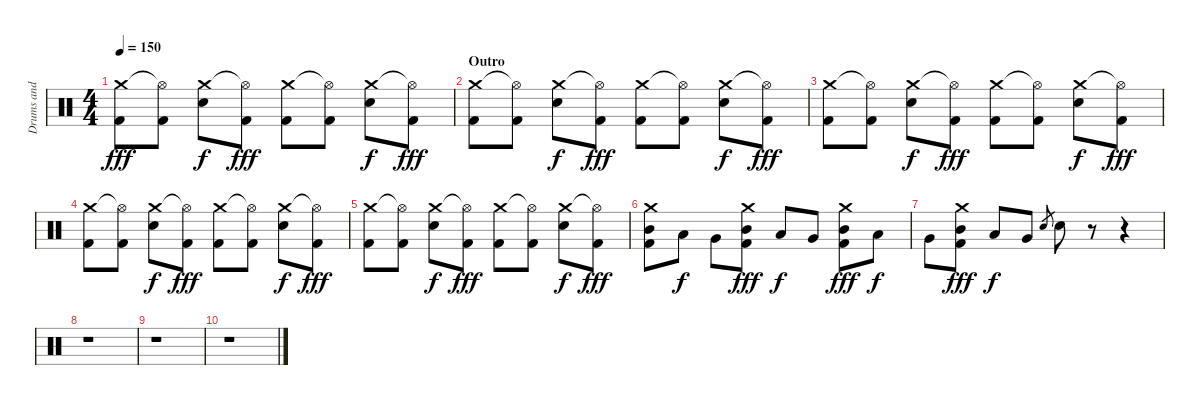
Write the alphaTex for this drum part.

\track ("Drums and Percussion" "Drums and ") {instrument percussion}
\staff {score}
\articulation defaults
\ts (4 4)
\tempo 150
\clef neutral
\ks c
("Crash medium (hit)" "Kick (hit) 2").8{dy fff} ("Hi-Hat (open)"{t} "Kick (hit) 2").8 ("Crash medium (hit)" "Electric Snare (hit)").8{dy f} ("Hi-Hat (open)"{t} "Kick (hit) 2").8{dy fff} ("Crash medium (hit)" "Kick (hit) 2").8 ("Hi-Hat (open)"{t} "Kick (hit) 2").8 ("Crash medium (hit)" "Electric Snare (hit)").8{dy f} ("Hi-Hat (open)"{t} "Kick (hit) 2").8{dy fff} |
\section ("" "Outro")
("Crash medium (hit)" "Kick (hit) 2").8 ("Hi-Hat (open)"{t} "Kick (hit) 2").8 ("Crash medium (hit)" "Electric Snare (hit)").8{dy f} ("Hi-Hat (open)"{t} "Kick (hit) 2").8{dy fff} ("Crash medium (hit)" "Kick (hit) 2").8 ("Hi-Hat (open)"{t} "Kick (hit) 2").8 ("Crash medium (hit)" "Electric Snare (hit)").8{dy f} ("Hi-Hat (open)"{t} "Kick (hit) 2").8{dy fff} |
("Crash medium (hit)" "Kick (hit) 2").8 ("Hi-Hat (open)"{t} "Kick (hit) 2").8 ("Crash medium (hit)" "Electric Snare (hit)").8{dy f} ("Hi-Hat (open)"{t} "Kick (hit) 2").8{dy fff} ("Crash medium (hit)" "Kick (hit) 2").8 ("Hi-Hat (open)"{t} "Kick (hit) 2").8 ("Crash medium (hit)" "Electric Snare (hit)").8{dy f} ("Hi-Hat (open)"{t} "Kick (hit) 2").8{dy fff} |
("Crash medium (hit)" "Kick (hit) 2").8 ("Hi-Hat (open)"{t} "Kick (hit) 2").8 ("Crash medium (hit)" "Electric Snare (hit)").8{dy f} ("Hi-Hat (open)"{t} "Kick (hit) 2").8{dy fff} ("Crash medium (hit)" "Kick (hit) 2").8 ("Hi-Hat (open)"{t} "Kick (hit) 2").8 ("Crash medium (hit)" "Electric Snare (hit)").8{dy f} ("Hi-Hat (open)"{t} "Kick (hit) 2").8{dy fff} |
("Crash medium (hit)" "Kick (hit) 2").8 ("Hi-Hat (open)"{t} "Kick (hit) 2").8 ("Crash medium (hit)" "Electric Snare (hit)").8{dy f} ("Hi-Hat (open)"{t} "Kick (hit) 2").8{dy fff} ("Crash medium (hit)" "Kick (hit) 2").8 ("Hi-Hat (open)"{t} "Kick (hit) 2").8 ("Crash medium (hit)" "Electric Snare (hit)").8{dy f} ("Hi-Hat (open)"{t} "Kick (hit) 2").8{dy fff} |
("Crash medium (hit)" "Mid Tom (hit)" "Kick (hit) 2").8 "Low Tom (hit)".8{dy f} "Very Low Tom (hit)".8 ("Crash medium (hit)" "Mid Tom (hit)" "Kick (hit) 2").8{dy fff} "Low Tom (hit)".8{dy f} "Very Low Tom (hit)".8 ("Crash medium (hit)" "Mid Tom (hit)" "Kick (hit) 2").8{dy fff} "Low Tom (hit)".8{dy f} |
"Very Low Tom (hit)".8 ("Crash medium (hit)" "Mid Tom (hit)" "Kick (hit) 2").8{dy fff} "Low Tom (hit)".8{dy f} "Very Low Tom (hit)".8 "Electric Snare (hit)".8{gr} "Electric Snare (hit)".8 r.8 r.4 |
r.1 |
r.1 |
r.1
